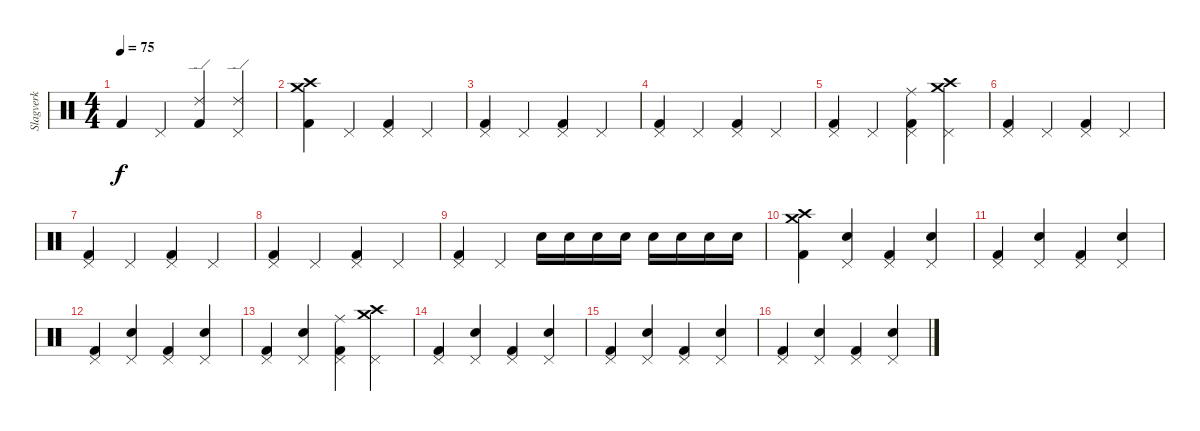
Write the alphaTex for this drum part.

\track ("Slagverk" "Slagverk") {instrument percussion}
\staff {score}
\articulation defaults
\ts (4 4)
\tempo 75
\clef neutral
\ks c "Kick (hit) 2".4{dy f} "Pedal Hi-Hat (hit)".4
("Ride (edge) 2" "Kick (hit) 2").4 ("Ride (edge) 2" "Pedal Hi-Hat (hit)").4 |
("Crash medium (hit)" "Crash high (hit)" "Kick (hit) 2").4 "Pedal Hi-Hat (hit)".4 ("Pedal Hi-Hat (hit)" "Kick (hit) 2").4 "Pedal Hi-Hat (hit)".4 |
("Pedal Hi-Hat (hit)" "Kick (hit) 2").4 "Pedal Hi-Hat (hit)".4 ("Pedal Hi-Hat (hit)" "Kick (hit) 2").4 "Pedal Hi-Hat (hit)".4 |
("Pedal Hi-Hat (hit)" "Kick (hit) 2").4 "Pedal Hi-Hat (hit)".4 ("Pedal Hi-Hat (hit)" "Kick (hit) 2").4 "Pedal Hi-Hat (hit)".4 |
("Pedal Hi-Hat (hit)" "Kick (hit) 2").4 "Pedal Hi-Hat (hit)".4 ("Pedal Hi-Hat (hit)" "Kick (hit) 2" "Ride (middle)").4 ("Pedal Hi-Hat (hit)" "Crash high (hit)" "Crash medium (hit)").4 |
("Pedal Hi-Hat (hit)" "Kick (hit) 2").4 "Pedal Hi-Hat (hit)".4 ("Pedal Hi-Hat (hit)" "Kick (hit) 2").4 "Pedal Hi-Hat (hit)".4 |
("Pedal Hi-Hat (hit)" "Kick (hit) 2").4 "Pedal Hi-Hat (hit)".4 ("Pedal Hi-Hat (hit)" "Kick (hit) 2").4 "Pedal Hi-Hat (hit)".4 |
("Pedal Hi-Hat (hit)" "Kick (hit) 2").4 "Pedal Hi-Hat (hit)".4 ("Pedal Hi-Hat (hit)" "Kick (hit) 2").4 "Pedal Hi-Hat (hit)".4 |
("Pedal Hi-Hat (hit)" "Kick (hit) 2").4 "Pedal Hi-Hat (hit)".4 "Snare (hit) 2".16 "Snare (hit) 2".16 "Snare (hit) 2".16 "Snare (hit) 2".16 "Snare (hit) 2".16 "Snare (hit) 2".16 "Snare (hit) 2".16 "Snare (hit) 2".16 |
("Crash medium (hit)" "Crash high (hit)" "Kick (hit) 2").4 ("Pedal Hi-Hat (hit)" "Snare (hit) 2").4 ("Pedal Hi-Hat (hit)" "Kick (hit) 2").4 ("Pedal Hi-Hat (hit)" "Snare (hit) 2").4 |
("Pedal Hi-Hat (hit)" "Kick (hit) 2").4 ("Pedal Hi-Hat (hit)" "Snare (hit) 2").4 ("Pedal Hi-Hat (hit)" "Kick (hit) 2").4 ("Pedal Hi-Hat (hit)" "Snare (hit) 2").4 |
("Pedal Hi-Hat (hit)" "Kick (hit) 2").4 ("Pedal Hi-Hat (hit)" "Snare (hit) 2").4 ("Pedal Hi-Hat (hit)" "Kick (hit) 2").4 ("Pedal Hi-Hat (hit)" "Snare (hit) 2").4 |
("Pedal Hi-Hat (hit)" "Kick (hit) 2").4 ("Pedal Hi-Hat (hit)" "Snare (hit) 2").4 ("Pedal Hi-Hat (hit)" "Kick (hit) 2" "Ride (middle)").4 ("Pedal Hi-Hat (hit)" "Crash high (hit)" "Crash medium (hit)").4 |
("Pedal Hi-Hat (hit)" "Kick (hit) 2").4 ("Pedal Hi-Hat (hit)" "Snare (hit) 2").4 ("Pedal Hi-Hat (hit)" "Kick (hit) 2").4 ("Pedal Hi-Hat (hit)" "Snare (hit) 2").4 |
("Pedal Hi-Hat (hit)" "Kick (hit) 2").4 ("Pedal Hi-Hat (hit)" "Snare (hit) 2").4 ("Pedal Hi-Hat (hit)" "Kick (hit) 2").4 ("Pedal Hi-Hat (hit)" "Snare (hit) 2").4 |
("Pedal Hi-Hat (hit)" "Kick (hit) 2").4 ("Pedal Hi-Hat (hit)" "Snare (hit) 2").4 ("Pedal Hi-Hat (hit)" "Kick (hit) 2").4 ("Pedal Hi-Hat (hit)" "Snare (hit) 2").4
